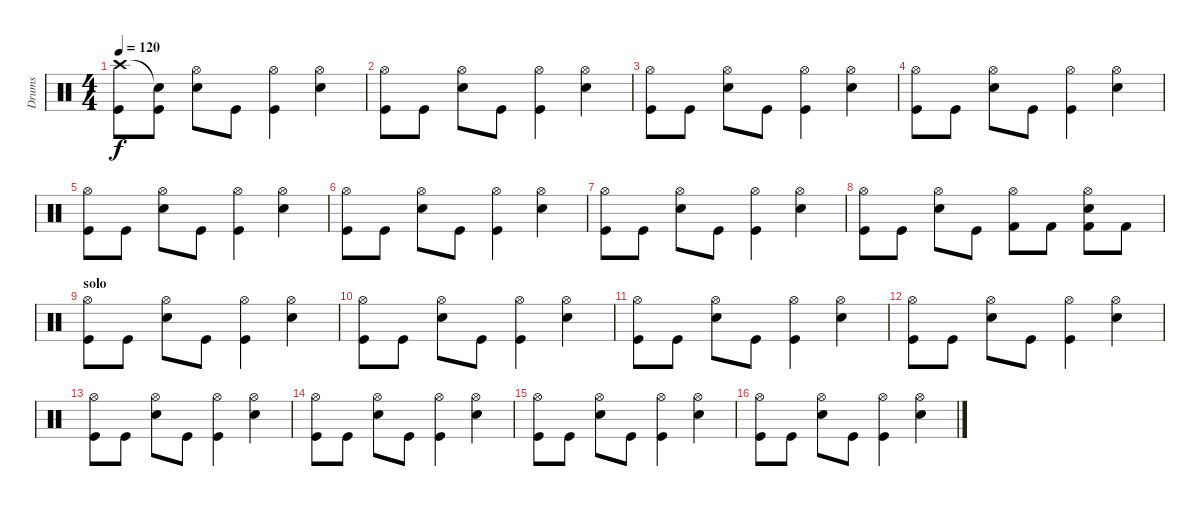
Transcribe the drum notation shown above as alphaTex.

\track ("Drums" "Drums") {instrument percussion}
\staff {score}
\articulation defaults
\ts (4 4)
\tempo 120
\clef neutral
\ks c
("Crash high (hit)" "Kick (hit)").8{dy f} ("Snare (hit)"{t} "Kick (hit)").8 ("Hi-Hat (open)" "Electric Snare (hit)").8 "Kick (hit)".8 ("Hi-Hat (open)" "Kick (hit)").4 ("Hi-Hat (open)" "Electric Snare (hit)").4 |
("Hi-Hat (open)" "Kick (hit)").8 "Kick (hit)".8 ("Hi-Hat (open)" "Electric Snare (hit)").8 "Kick (hit)".8 ("Hi-Hat (open)" "Kick (hit)").4 ("Hi-Hat (open)" "Electric Snare (hit)").4 |
("Hi-Hat (open)" "Kick (hit)").8 "Kick (hit)".8 ("Hi-Hat (open)" "Electric Snare (hit)").8 "Kick (hit)".8 ("Hi-Hat (open)" "Kick (hit)").4 ("Hi-Hat (open)" "Electric Snare (hit)").4 |
("Hi-Hat (open)" "Kick (hit)").8 "Kick (hit)".8 ("Hi-Hat (open)" "Electric Snare (hit)").8 "Kick (hit)".8 ("Hi-Hat (open)" "Kick (hit)").4 ("Hi-Hat (open)" "Electric Snare (hit)").4 |
("Hi-Hat (open)" "Kick (hit)").8 "Kick (hit)".8 ("Hi-Hat (open)" "Electric Snare (hit)").8 "Kick (hit)".8 ("Hi-Hat (open)" "Kick (hit)").4 ("Hi-Hat (open)" "Electric Snare (hit)").4 |
("Hi-Hat (open)" "Kick (hit)").8 "Kick (hit)".8 ("Hi-Hat (open)" "Electric Snare (hit)").8 "Kick (hit)".8 ("Hi-Hat (open)" "Kick (hit)").4 ("Hi-Hat (open)" "Electric Snare (hit)").4 |
("Hi-Hat (open)" "Kick (hit)").8 "Kick (hit)".8 ("Hi-Hat (open)" "Electric Snare (hit)").8 "Kick (hit)".8 ("Hi-Hat (open)" "Kick (hit)").4 ("Hi-Hat (open)" "Electric Snare (hit)").4 |
("Hi-Hat (open)" "Kick (hit)").8 "Kick (hit)".8 ("Hi-Hat (open)" "Electric Snare (hit)").8 "Kick (hit)".8 ("Hi-Hat (open)" "Kick (hit) 2").8 "Kick (hit) 2".8 ("Hi-Hat (open)" "Electric Snare (hit)" "Kick (hit) 2").8 "Kick (hit) 2".8 |
\section ("" "solo")
("Hi-Hat (open)" "Kick (hit)").8 "Kick (hit)".8 ("Hi-Hat (open)" "Electric Snare (hit)").8 "Kick (hit)".8 ("Hi-Hat (open)" "Kick (hit)").4 ("Hi-Hat (open)" "Electric Snare (hit)").4 |
("Hi-Hat (open)" "Kick (hit)").8 "Kick (hit)".8 ("Hi-Hat (open)" "Electric Snare (hit)").8 "Kick (hit)".8 ("Hi-Hat (open)" "Kick (hit)").4 ("Hi-Hat (open)" "Electric Snare (hit)").4 |
("Hi-Hat (open)" "Kick (hit)").8 "Kick (hit)".8 ("Hi-Hat (open)" "Electric Snare (hit)").8 "Kick (hit)".8 ("Hi-Hat (open)" "Kick (hit)").4 ("Hi-Hat (open)" "Electric Snare (hit)").4 |
("Hi-Hat (open)" "Kick (hit)").8 "Kick (hit)".8 ("Hi-Hat (open)" "Electric Snare (hit)").8 "Kick (hit)".8 ("Hi-Hat (open)" "Kick (hit)").4 ("Hi-Hat (open)" "Electric Snare (hit)").4 |
("Hi-Hat (open)" "Kick (hit)").8 "Kick (hit)".8 ("Hi-Hat (open)" "Electric Snare (hit)").8 "Kick (hit)".8 ("Hi-Hat (open)" "Kick (hit)").4 ("Hi-Hat (open)" "Electric Snare (hit)").4 |
("Hi-Hat (open)" "Kick (hit)").8 "Kick (hit)".8 ("Hi-Hat (open)" "Electric Snare (hit)").8 "Kick (hit)".8 ("Hi-Hat (open)" "Kick (hit)").4 ("Hi-Hat (open)" "Electric Snare (hit)").4 |
("Hi-Hat (open)" "Kick (hit)").8 "Kick (hit)".8 ("Hi-Hat (open)" "Electric Snare (hit)").8 "Kick (hit)".8 ("Hi-Hat (open)" "Kick (hit)").4 ("Hi-Hat (open)" "Electric Snare (hit)").4 |
("Hi-Hat (open)" "Kick (hit)").8 "Kick (hit)".8 ("Hi-Hat (open)" "Electric Snare (hit)").8 "Kick (hit)".8 ("Hi-Hat (open)" "Kick (hit)").4 ("Hi-Hat (open)" "Electric Snare (hit)").4
